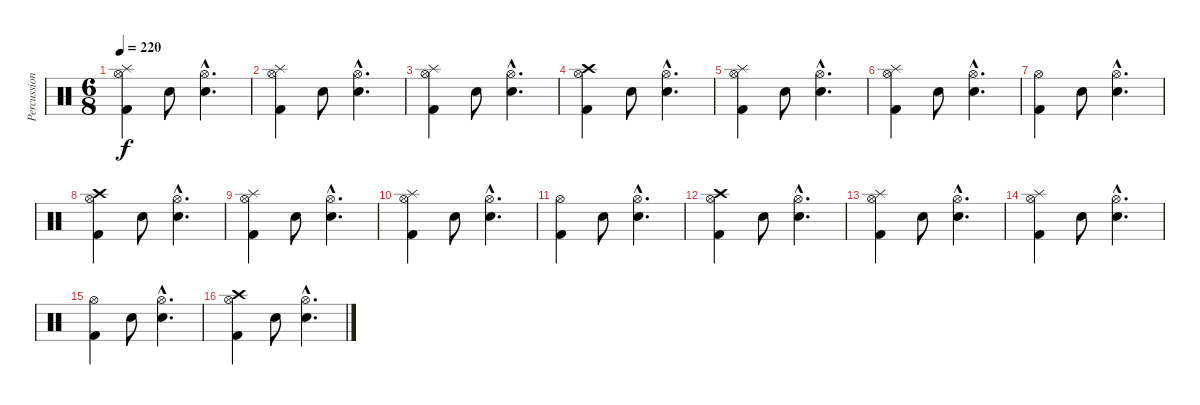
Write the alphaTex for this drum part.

\track ("Percussion" "Percussion") {instrument percussion}
\staff {score}
\articulation defaults
\ts (6 8)
\tempo 220
\clef neutral
\ks c
("Hi-Hat (open)" "Splash (hit)" "Kick (hit) 2").4{dy f} "Snare (hit) 2".8 ("Hi-Hat (open)"{hac} "Electric Snare (hit)"{hac}).4{d} |
("Hi-Hat (open)" "Splash (hit)" "Kick (hit) 2").4 "Snare (hit) 2".8 ("Hi-Hat (open)"{hac} "Electric Snare (hit)"{hac}).4{d} |
("Hi-Hat (open)" "Splash (hit)" "Kick (hit) 2").4 "Snare (hit) 2".8 ("Hi-Hat (open)"{hac} "Electric Snare (hit)"{hac}).4{d} |
("Hi-Hat (open)" "Crash high (hit)" "Kick (hit) 2").4 "Snare (hit) 2".8 ("Hi-Hat (open)"{hac} "Electric Snare (hit)"{hac}).4{d} |
("Hi-Hat (open)" "Splash (hit)" "Kick (hit) 2").4 "Snare (hit) 2".8 ("Hi-Hat (open)"{hac} "Electric Snare (hit)"{hac}).4{d} |
("Hi-Hat (open)" "Splash (hit)" "Kick (hit) 2").4 "Snare (hit) 2".8 ("Hi-Hat (open)"{hac} "Electric Snare (hit)"{hac}).4{d} |
("Hi-Hat (open)" "Kick (hit) 2").4 "Snare (hit) 2".8 ("Hi-Hat (open)"{hac} "Electric Snare (hit)"{hac}).4{d} |
("Hi-Hat (open)" "Crash high (hit)" "Kick (hit) 2").4 "Snare (hit) 2".8 ("Hi-Hat (open)"{hac} "Electric Snare (hit)"{hac}).4{d} |
("Hi-Hat (open)" "Splash (hit)" "Kick (hit) 2").4 "Snare (hit) 2".8 ("Hi-Hat (open)"{hac} "Electric Snare (hit)"{hac}).4{d} |
("Hi-Hat (open)" "Splash (hit)" "Kick (hit) 2").4 "Snare (hit) 2".8 ("Hi-Hat (open)"{hac} "Electric Snare (hit)"{hac}).4{d} |
("Hi-Hat (open)" "Kick (hit) 2").4 "Snare (hit) 2".8 ("Hi-Hat (open)"{hac} "Electric Snare (hit)"{hac}).4{d} |
("Hi-Hat (open)" "Crash high (hit)" "Kick (hit) 2").4 "Snare (hit) 2".8 ("Hi-Hat (open)"{hac} "Electric Snare (hit)"{hac}).4{d} |
("Hi-Hat (open)" "Splash (hit)" "Kick (hit) 2").4 "Snare (hit) 2".8 ("Hi-Hat (open)"{hac} "Electric Snare (hit)"{hac}).4{d} |
("Hi-Hat (open)" "Splash (hit)" "Kick (hit) 2").4 "Snare (hit) 2".8 ("Hi-Hat (open)"{hac} "Electric Snare (hit)"{hac}).4{d} |
("Hi-Hat (open)" "Kick (hit) 2").4 "Snare (hit) 2".8 ("Hi-Hat (open)"{hac} "Electric Snare (hit)"{hac}).4{d} |
("Hi-Hat (open)" "Crash high (hit)" "Kick (hit) 2").4 "Snare (hit) 2".8 ("Hi-Hat (open)"{hac} "Electric Snare (hit)"{hac}).4{d}
